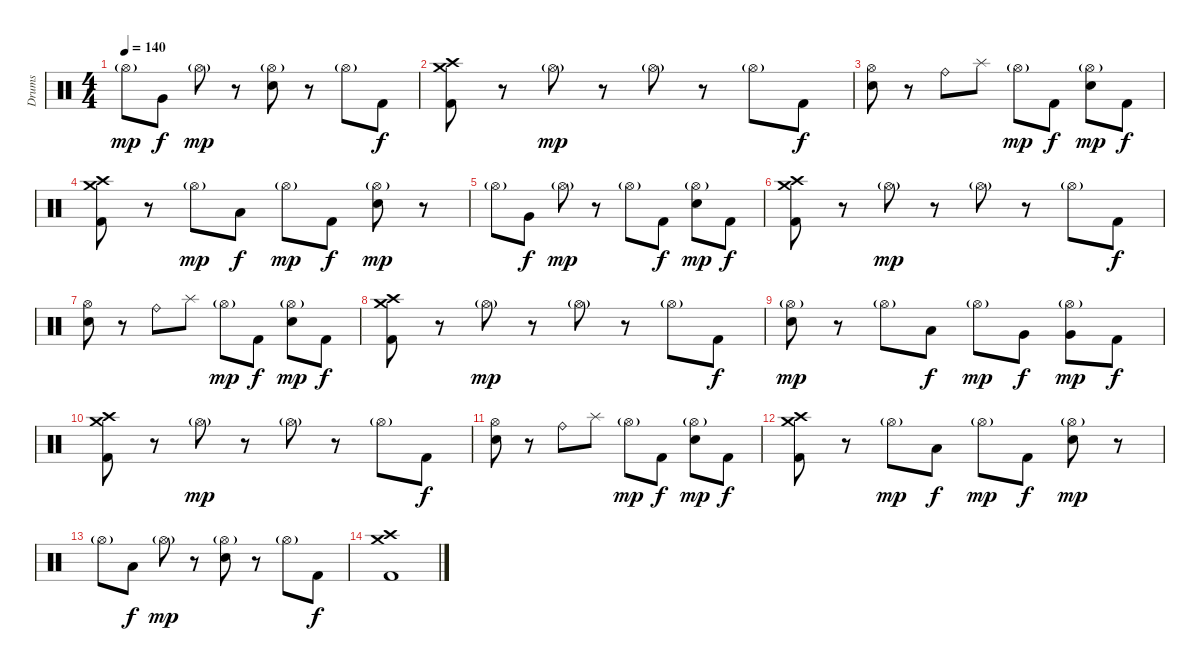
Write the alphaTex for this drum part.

\track ("Drums" "Drums") {instrument percussion}
\staff {score}
\articulation defaults
\ts (4 4)
\tempo 140
\clef neutral
\ks c "Hi-Hat (open)"{g}.8{dy mp} "Very Low Tom (hit)".8{dy f} "Hi-Hat (open)"{g}.8{dy mp}
r.8 ("Hi-Hat (open)"{g} "Electric Snare (hit)").8 r.8 "Hi-Hat (open)"{g}.8 "Kick (hit) 2".8{dy f} |
("Crash high (hit)" "Crash medium (hit)" "Kick (hit) 2").8 r.8 "Hi-Hat (open)"{g}.8{dy mp} r.8 "Hi-Hat (open)"{g}.8 r.8 "Hi-Hat (open)"{g}.8 "Kick (hit) 2".8{dy f} |
("Hi-Hat (open)" "Electric Snare (hit)").8 r.8 "Ride (bell)".8 "Splash (hit)".8 "Hi-Hat (open)"{g}.8{dy mp} "Kick (hit) 2".8{dy f} ("Hi-Hat (open)"{g} "Electric Snare (hit)").8{dy mp} "Kick (hit) 2".8{dy f} |
("Crash high (hit)" "Crash medium (hit)" "Kick (hit) 2").8 r.8 "Hi-Hat (open)"{g}.8{dy mp} "Low Tom (hit)".8{dy f} "Hi-Hat (open)"{g}.8{dy mp} "Kick (hit) 2".8{dy f} ("Hi-Hat (open)"{g} "Electric Snare (hit)").8{dy mp} r.8 |
"Hi-Hat (open)"{g}.8 "Very Low Tom (hit)".8{dy f} "Hi-Hat (open)"{g}.8{dy mp} r.8 "Hi-Hat (open)"{g}.8 "Kick (hit) 2".8{dy f} ("Hi-Hat (open)"{g} "Electric Snare (hit)").8{dy mp} "Kick (hit) 2".8{dy f} |
("Crash high (hit)" "Crash medium (hit)" "Kick (hit) 2").8 r.8 "Hi-Hat (open)"{g}.8{dy mp} r.8 "Hi-Hat (open)"{g}.8 r.8 "Hi-Hat (open)"{g}.8 "Kick (hit) 2".8{dy f} |
("Hi-Hat (open)" "Electric Snare (hit)").8 r.8 "Ride (bell)".8 "Splash (hit)".8 "Hi-Hat (open)"{g}.8{dy mp} "Kick (hit) 2".8{dy f} ("Hi-Hat (open)"{g} "Electric Snare (hit)").8{dy mp} "Kick (hit) 2".8{dy f} |
("Crash high (hit)" "Crash medium (hit)" "Kick (hit) 2").8 r.8 "Hi-Hat (open)"{g}.8{dy mp} r.8 "Hi-Hat (open)"{g}.8 r.8 "Hi-Hat (open)"{g}.8 "Kick (hit) 2".8{dy f} |
("Hi-Hat (open)"{g} "Electric Snare (hit)").8{dy mp} r.8 "Hi-Hat (open)"{g}.8 "Low Tom (hit)".8{dy f} "Hi-Hat (open)"{g}.8{dy mp} "Very Low Tom (hit)".8{dy f} ("Very Low Tom (hit)" "Hi-Hat (open)"{g}).8{dy mp} "Kick (hit) 2".8{dy f} |
("Crash high (hit)" "Crash medium (hit)" "Kick (hit) 2").8 r.8 "Hi-Hat (open)"{g}.8{dy mp} r.8 "Hi-Hat (open)"{g}.8 r.8 "Hi-Hat (open)"{g}.8 "Kick (hit) 2".8{dy f} |
("Hi-Hat (open)" "Electric Snare (hit)").8 r.8 "Ride (bell)".8 "Splash (hit)".8 "Hi-Hat (open)"{g}.8{dy mp} "Kick (hit) 2".8{dy f} ("Hi-Hat (open)"{g} "Electric Snare (hit)").8{dy mp} "Kick (hit) 2".8{dy f} |
("Crash high (hit)" "Crash medium (hit)" "Kick (hit) 2").8 r.8 "Hi-Hat (open)"{g}.8{dy mp} "Low Tom (hit)".8{dy f} "Hi-Hat (open)"{g}.8{dy mp} "Kick (hit) 2".8{dy f} ("Hi-Hat (open)"{g} "Electric Snare (hit)").8{dy mp} r.8 |
"Hi-Hat (open)"{g}.8 "Low Tom (hit)".8{dy f} "Hi-Hat (open)"{g}.8{dy mp} r.8 ("Hi-Hat (open)"{g} "Electric Snare (hit)").8 r.8 "Hi-Hat (open)"{g}.8 "Kick (hit) 2".8{dy f} |
("Crash medium (hit)" "Crash high (hit)" "Kick (hit) 2").1
